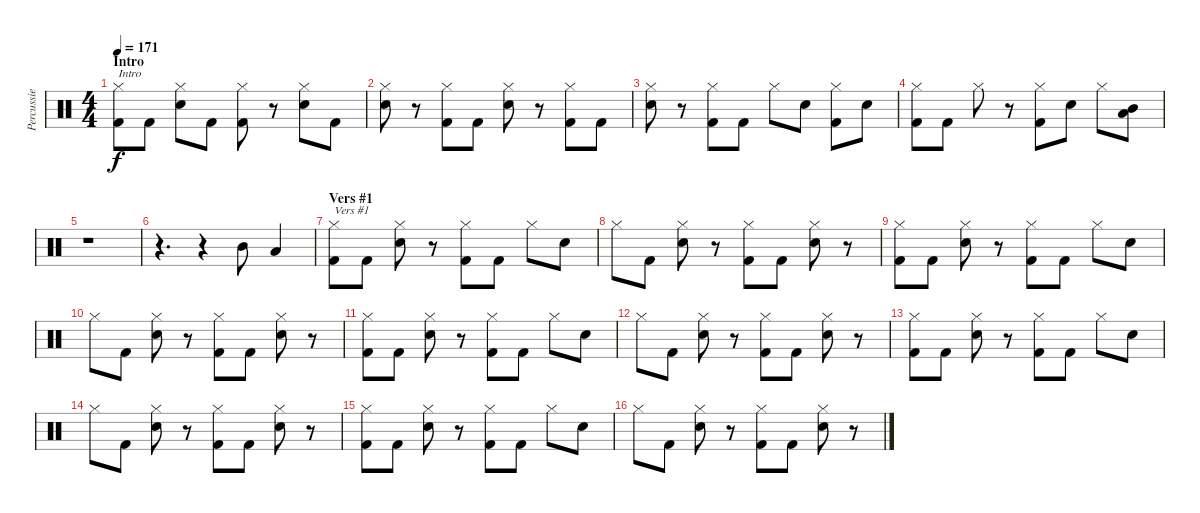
\track ("Percussie" "Percussie") {instrument percussion}
\staff {score}
\articulation defaults
\ts (4 4)
\section ("" "Intro")
\tempo 171
\clef neutral
\ks c
("Hi-Hat (closed)" "Kick (hit) 2").8{txt "Intro" dy f} "Kick (hit) 2".8 ("Hi-Hat (closed)" "Snare (hit) 2").8 "Kick (hit) 2".8 ("Hi-Hat (closed)" "Kick (hit) 2").8 r.8 ("Hi-Hat (closed)" "Snare (hit) 2").8 "Kick (hit) 2".8 |
("Hi-Hat (closed)" "Snare (hit) 2").8 r.8 ("Hi-Hat (closed)" "Kick (hit) 2").8 "Kick (hit) 2".8 ("Hi-Hat (closed)" "Snare (hit) 2").8 r.8 ("Hi-Hat (closed)" "Kick (hit) 2").8 "Kick (hit) 2".8 |
("Hi-Hat (closed)" "Snare (hit) 2").8 r.8 ("Hi-Hat (closed)" "Kick (hit) 2").8 "Kick (hit) 2".8 "Hi-Hat (closed)".8 "Snare (hit) 2".8 ("Hi-Hat (closed)" "Kick (hit) 2").8 "Snare (hit) 2".8 |
("Hi-Hat (closed)" "Kick (hit) 2").8 "Kick (hit) 2".8 "Hi-Hat (closed)".8 r.8 ("Hi-Hat (closed)" "Kick (hit) 2").8 "Snare (hit) 2".8 "Hi-Hat (closed)".8 ("Mid Tom (hit)" "Low Floor Tom (hit)").8 |
r.1 |
r.4{d} r.4 "Mid Tom (hit)".8 "Low Tom (hit)".4 |
\section ("" "Vers #1")
("Hi-Hat (closed)" "Kick (hit) 2").8{txt "Vers #1"} "Kick (hit) 2".8 ("Hi-Hat (closed)" "Snare (hit) 2").8 r.8 ("Hi-Hat (closed)" "Kick (hit) 2").8 "Kick (hit) 2".8 "Hi-Hat (closed)".8 "Snare (hit) 2".8 |
"Hi-Hat (closed)".8 "Kick (hit) 2".8 ("Hi-Hat (closed)" "Snare (hit) 2").8 r.8 ("Hi-Hat (closed)" "Kick (hit) 2").8 "Kick (hit) 2".8 ("Hi-Hat (closed)" "Snare (hit) 2").8 r.8 |
("Hi-Hat (closed)" "Kick (hit) 2").8 "Kick (hit) 2".8 ("Hi-Hat (closed)" "Snare (hit) 2").8 r.8 ("Hi-Hat (closed)" "Kick (hit) 2").8 "Kick (hit) 2".8 "Hi-Hat (closed)".8 "Snare (hit) 2".8 |
"Hi-Hat (closed)".8 "Kick (hit) 2".8 ("Hi-Hat (closed)" "Snare (hit) 2").8 r.8 ("Hi-Hat (closed)" "Kick (hit) 2").8 "Kick (hit) 2".8 ("Hi-Hat (closed)" "Snare (hit) 2").8 r.8 |
("Hi-Hat (closed)" "Kick (hit) 2").8 "Kick (hit) 2".8 ("Hi-Hat (closed)" "Snare (hit) 2").8 r.8 ("Hi-Hat (closed)" "Kick (hit) 2").8 "Kick (hit) 2".8 "Hi-Hat (closed)".8 "Snare (hit) 2".8 |
"Hi-Hat (closed)".8 "Kick (hit) 2".8 ("Hi-Hat (closed)" "Snare (hit) 2").8 r.8 ("Hi-Hat (closed)" "Kick (hit) 2").8 "Kick (hit) 2".8 ("Hi-Hat (closed)" "Snare (hit) 2").8 r.8 |
("Hi-Hat (closed)" "Kick (hit) 2").8 "Kick (hit) 2".8 ("Hi-Hat (closed)" "Snare (hit) 2").8 r.8 ("Hi-Hat (closed)" "Kick (hit) 2").8 "Kick (hit) 2".8 "Hi-Hat (closed)".8 "Snare (hit) 2".8 |
"Hi-Hat (closed)".8 "Kick (hit) 2".8 ("Hi-Hat (closed)" "Snare (hit) 2").8 r.8 ("Hi-Hat (closed)" "Kick (hit) 2").8 "Kick (hit) 2".8 ("Hi-Hat (closed)" "Snare (hit) 2").8 r.8 |
("Hi-Hat (closed)" "Kick (hit) 2").8 "Kick (hit) 2".8 ("Hi-Hat (closed)" "Snare (hit) 2").8 r.8 ("Hi-Hat (closed)" "Kick (hit) 2").8 "Kick (hit) 2".8 "Hi-Hat (closed)".8 "Snare (hit) 2".8 |
"Hi-Hat (closed)".8 "Kick (hit) 2".8 ("Hi-Hat (closed)" "Snare (hit) 2").8 r.8 ("Hi-Hat (closed)" "Kick (hit) 2").8 "Kick (hit) 2".8 ("Hi-Hat (closed)" "Snare (hit) 2").8 r.8
